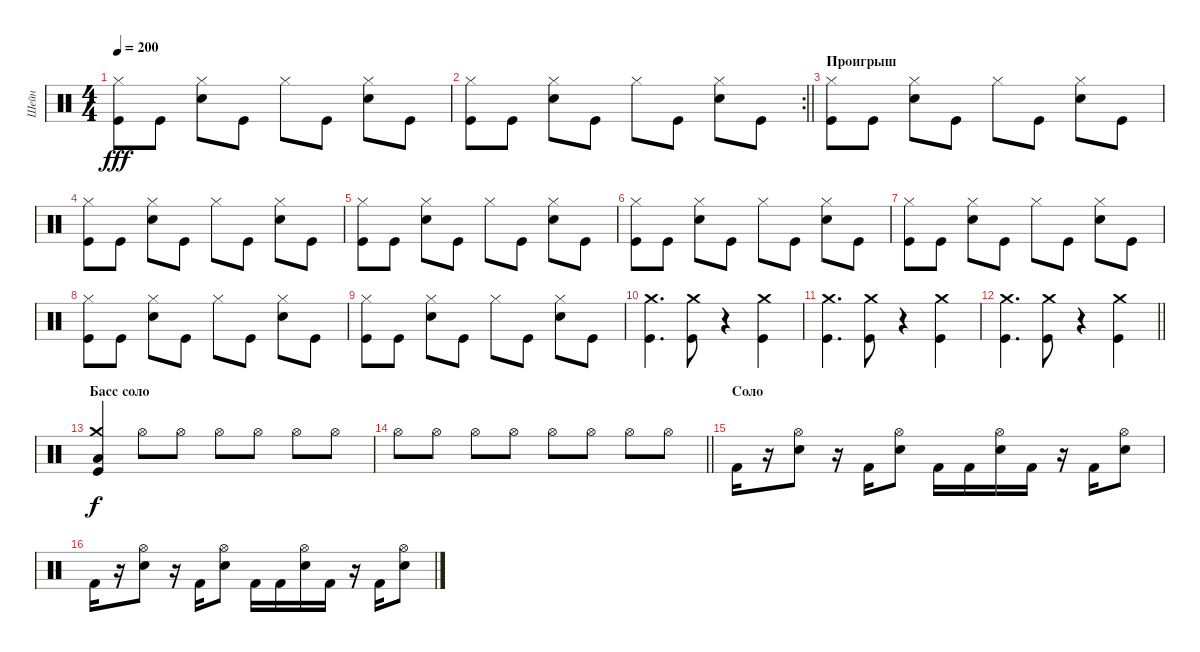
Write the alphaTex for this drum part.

\track ("Шейн" "Шейн") {instrument percussion}
\staff {score}
\articulation defaults
\ts (4 4)
\tempo 200
\clef neutral
\ks c
("Kick (hit)" "Hi-Hat (closed)").8{dy fff} "Kick (hit)".8 ("Snare (hit) 2" "Hi-Hat (closed)").8 "Kick (hit)".8 "Hi-Hat (closed)".8 "Kick (hit)".8 ("Snare (hit) 2" "Hi-Hat (closed)").8 "Kick (hit)".8 |
\rc 2
\barLineRight lightlight
("Kick (hit)" "Hi-Hat (closed)").8 "Kick (hit)".8 ("Snare (hit) 2" "Hi-Hat (closed)").8 "Kick (hit)".8 "Hi-Hat (closed)".8 "Kick (hit)".8 ("Snare (hit) 2" "Hi-Hat (closed)").8 "Kick (hit)".8 |
\section ("" "Проигрыш")
("Kick (hit)" "Hi-Hat (closed)").8 "Kick (hit)".8 ("Snare (hit) 2" "Hi-Hat (closed)").8 "Kick (hit)".8 "Hi-Hat (closed)".8 "Kick (hit)".8 ("Snare (hit) 2" "Hi-Hat (closed)").8 "Kick (hit)".8 |
("Kick (hit)" "Hi-Hat (closed)").8 "Kick (hit)".8 ("Snare (hit) 2" "Hi-Hat (closed)").8 "Kick (hit)".8 "Hi-Hat (closed)".8 "Kick (hit)".8 ("Snare (hit) 2" "Hi-Hat (closed)").8 "Kick (hit)".8 |
("Kick (hit)" "Hi-Hat (closed)").8 "Kick (hit)".8 ("Snare (hit) 2" "Hi-Hat (closed)").8 "Kick (hit)".8 "Hi-Hat (closed)".8 "Kick (hit)".8 ("Snare (hit) 2" "Hi-Hat (closed)").8 "Kick (hit)".8 |
("Kick (hit)" "Hi-Hat (closed)").8 "Kick (hit)".8 ("Snare (hit) 2" "Hi-Hat (closed)").8 "Kick (hit)".8 "Hi-Hat (closed)".8 "Kick (hit)".8 ("Snare (hit) 2" "Hi-Hat (closed)").8 "Kick (hit)".8 |
("Kick (hit)" "Hi-Hat (closed)").8 "Kick (hit)".8 ("Snare (hit) 2" "Hi-Hat (closed)").8 "Kick (hit)".8 "Hi-Hat (closed)".8 "Kick (hit)".8 ("Snare (hit) 2" "Hi-Hat (closed)").8 "Kick (hit)".8 |
("Kick (hit)" "Hi-Hat (closed)").8 "Kick (hit)".8 ("Snare (hit) 2" "Hi-Hat (closed)").8 "Kick (hit)".8 "Hi-Hat (closed)".8 "Kick (hit)".8 ("Snare (hit) 2" "Hi-Hat (closed)").8 "Kick (hit)".8 |
("Kick (hit)" "Hi-Hat (closed)").8 "Kick (hit)".8 ("Snare (hit) 2" "Hi-Hat (closed)").8 "Kick (hit)".8 "Hi-Hat (closed)".8 "Kick (hit)".8 ("Snare (hit) 2" "Hi-Hat (closed)").8 "Kick (hit)".8 |
("Kick (hit)" "Crash medium (hit)").4{d} ("Kick (hit)" "Crash medium (hit)").8 r.4 ("Crash medium (hit)" "Kick (hit)").4 |
("Kick (hit)" "Crash medium (hit)").4{d} ("Kick (hit)" "Crash medium (hit)").8 r.4 ("Crash medium (hit)" "Kick (hit)").4 |
\barLineRight lightlight
("Kick (hit)" "Crash medium (hit)").4{d} ("Kick (hit)" "Crash medium (hit)").8 r.4 ("Crash medium (hit)" "Kick (hit)").4 |
\section ("" "Басс соло")
("Kick (hit)" "Crash medium (hit)" "Low Floor Tom (hit)").4{dy f} "Hi-Hat (open)".8 "Hi-Hat (open)".8 "Hi-Hat (open)".8 "Hi-Hat (open)".8 "Hi-Hat (open)".8 "Hi-Hat (open)".8 |
\barLineRight lightlight "Hi-Hat (open)".8 "Hi-Hat (open)".8 "Hi-Hat (open)".8 "Hi-Hat (open)".8 "Hi-Hat (open)".8 "Hi-Hat (open)".8 "Hi-Hat (open)".8 "Hi-Hat (open)".8
|
\section ("" "Соло")
"Kick (hit) 2".16 r.16 ("Electric Snare (hit)" "Hi-Hat (open)").8 r.16 "Kick (hit) 2".16 ("Electric Snare (hit)" "Hi-Hat (open)").8 "Kick (hit) 2".16 "Kick (hit) 2".16 ("Electric Snare (hit)" "Hi-Hat (open)").16 "Kick (hit) 2".16 r.16 "Kick (hit) 2".16 ("Electric Snare (hit)" "Hi-Hat (open)").8 |
"Kick (hit) 2".16 r.16 ("Electric Snare (hit)" "Hi-Hat (open)").8 r.16 "Kick (hit) 2".16 ("Electric Snare (hit)" "Hi-Hat (open)").8 "Kick (hit) 2".16 "Kick (hit) 2".16 ("Electric Snare (hit)" "Hi-Hat (open)").16 "Kick (hit) 2".16 r.16 "Kick (hit) 2".16 ("Electric Snare (hit)" "Hi-Hat (open)").8
